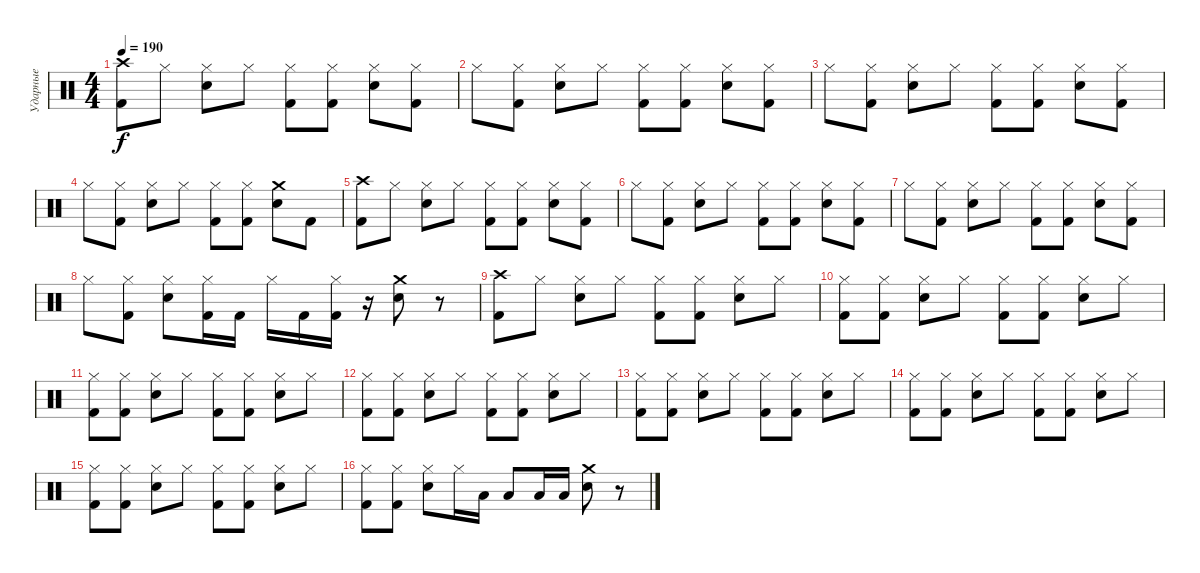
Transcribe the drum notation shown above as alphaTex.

\track ("Ударные" "Ударные") {instrument percussion}
\staff {score}
\articulation defaults
\ts (4 4)
\tempo 190
\clef neutral
\ks c
("Crash high (hit)" "Kick (hit) 2").8{dy f} "Hi-Hat (closed)".8 ("Hi-Hat (closed)" "Electric Snare (hit)").8 "Hi-Hat (closed)".8 ("Hi-Hat (closed)" "Kick (hit) 2").8 ("Hi-Hat (closed)" "Kick (hit) 2").8 ("Hi-Hat (closed)" "Electric Snare (hit)").8 ("Hi-Hat (closed)" "Kick (hit) 2").8 |
"Hi-Hat (closed)".8 ("Hi-Hat (closed)" "Kick (hit) 2").8 ("Hi-Hat (closed)" "Electric Snare (hit)").8 "Hi-Hat (closed)".8 ("Hi-Hat (closed)" "Kick (hit) 2").8 ("Hi-Hat (closed)" "Kick (hit) 2").8 ("Hi-Hat (closed)" "Electric Snare (hit)").8 ("Hi-Hat (closed)" "Kick (hit) 2").8 |
"Hi-Hat (closed)".8 ("Hi-Hat (closed)" "Kick (hit) 2").8 ("Hi-Hat (closed)" "Electric Snare (hit)").8 "Hi-Hat (closed)".8 ("Hi-Hat (closed)" "Kick (hit) 2").8 ("Hi-Hat (closed)" "Kick (hit) 2").8 ("Hi-Hat (closed)" "Electric Snare (hit)").8 ("Hi-Hat (closed)" "Kick (hit) 2").8 |
"Hi-Hat (closed)".8 ("Hi-Hat (closed)" "Kick (hit) 2").8 ("Hi-Hat (closed)" "Electric Snare (hit)").8 "Hi-Hat (closed)".8 ("Hi-Hat (closed)" "Kick (hit) 2").8 ("Hi-Hat (closed)" "Kick (hit) 2").8 ("Crash medium (hit)" "Electric Snare (hit)").8 "Kick (hit) 2".8 |
("Crash high (hit)" "Kick (hit) 2").8 "Hi-Hat (closed)".8 ("Hi-Hat (closed)" "Electric Snare (hit)").8 "Hi-Hat (closed)".8 ("Hi-Hat (closed)" "Kick (hit) 2").8 ("Hi-Hat (closed)" "Kick (hit) 2").8 ("Hi-Hat (closed)" "Electric Snare (hit)").8 ("Hi-Hat (closed)" "Kick (hit) 2").8 |
"Hi-Hat (closed)".8 ("Hi-Hat (closed)" "Kick (hit) 2").8 ("Hi-Hat (closed)" "Electric Snare (hit)").8 "Hi-Hat (closed)".8 ("Hi-Hat (closed)" "Kick (hit) 2").8 ("Hi-Hat (closed)" "Kick (hit) 2").8 ("Hi-Hat (closed)" "Electric Snare (hit)").8 ("Hi-Hat (closed)" "Kick (hit) 2").8 |
"Hi-Hat (closed)".8 ("Hi-Hat (closed)" "Kick (hit) 2").8 ("Hi-Hat (closed)" "Electric Snare (hit)").8 "Hi-Hat (closed)".8 ("Hi-Hat (closed)" "Kick (hit) 2").8 ("Hi-Hat (closed)" "Kick (hit) 2").8 ("Hi-Hat (closed)" "Electric Snare (hit)").8 ("Hi-Hat (closed)" "Kick (hit) 2").8 |
"Hi-Hat (closed)".8 ("Hi-Hat (closed)" "Kick (hit) 2").8 ("Hi-Hat (closed)" "Electric Snare (hit)").8 ("Hi-Hat (closed)" "Kick (hit) 2").16 "Kick (hit) 2".16 "Hi-Hat (closed)".16 "Kick (hit) 2".16 ("Hi-Hat (closed)" "Kick (hit) 2").16 r.16 ("Crash medium (hit)" "Electric Snare (hit)").8 r.8 |
("Crash high (hit)" "Kick (hit) 2").8 "Hi-Hat (closed)".8 ("Hi-Hat (closed)" "Electric Snare (hit)").8 "Hi-Hat (closed)".8 ("Hi-Hat (closed)" "Kick (hit) 2").8 ("Hi-Hat (closed)" "Kick (hit) 2").8 ("Hi-Hat (closed)" "Electric Snare (hit)").8 "Hi-Hat (closed)".8 |
("Hi-Hat (closed)" "Kick (hit) 2").8 ("Hi-Hat (closed)" "Kick (hit) 2").8 ("Hi-Hat (closed)" "Electric Snare (hit)").8 "Hi-Hat (closed)".8 ("Hi-Hat (closed)" "Kick (hit) 2").8 ("Hi-Hat (closed)" "Kick (hit) 2").8 ("Hi-Hat (closed)" "Electric Snare (hit)").8 "Hi-Hat (closed)".8 |
("Hi-Hat (closed)" "Kick (hit) 2").8 ("Hi-Hat (closed)" "Kick (hit) 2").8 ("Hi-Hat (closed)" "Electric Snare (hit)").8 "Hi-Hat (closed)".8 ("Hi-Hat (closed)" "Kick (hit) 2").8 ("Hi-Hat (closed)" "Kick (hit) 2").8 ("Hi-Hat (closed)" "Electric Snare (hit)").8 "Hi-Hat (closed)".8 |
("Hi-Hat (closed)" "Kick (hit) 2").8 ("Hi-Hat (closed)" "Kick (hit) 2").8 ("Hi-Hat (closed)" "Electric Snare (hit)").8 "Hi-Hat (closed)".8 ("Hi-Hat (closed)" "Kick (hit) 2").8 ("Hi-Hat (closed)" "Kick (hit) 2").8 ("Hi-Hat (closed)" "Electric Snare (hit)").8 "Hi-Hat (closed)".8 |
("Hi-Hat (closed)" "Kick (hit) 2").8 ("Hi-Hat (closed)" "Kick (hit) 2").8 ("Hi-Hat (closed)" "Electric Snare (hit)").8 "Hi-Hat (closed)".8 ("Hi-Hat (closed)" "Kick (hit) 2").8 ("Hi-Hat (closed)" "Kick (hit) 2").8 ("Hi-Hat (closed)" "Electric Snare (hit)").8 "Hi-Hat (closed)".8 |
("Hi-Hat (closed)" "Kick (hit) 2").8 ("Hi-Hat (closed)" "Kick (hit) 2").8 ("Hi-Hat (closed)" "Electric Snare (hit)").8 "Hi-Hat (closed)".8 ("Hi-Hat (closed)" "Kick (hit) 2").8 ("Hi-Hat (closed)" "Kick (hit) 2").8 ("Hi-Hat (closed)" "Electric Snare (hit)").8 "Hi-Hat (closed)".8 |
("Hi-Hat (closed)" "Kick (hit) 2").8 ("Hi-Hat (closed)" "Kick (hit) 2").8 ("Hi-Hat (closed)" "Electric Snare (hit)").8 "Hi-Hat (closed)".8 ("Hi-Hat (closed)" "Kick (hit) 2").8 ("Hi-Hat (closed)" "Kick (hit) 2").8 ("Hi-Hat (closed)" "Electric Snare (hit)").8 "Hi-Hat (closed)".8 |
("Hi-Hat (closed)" "Kick (hit) 2").8 ("Hi-Hat (closed)" "Kick (hit) 2").8 ("Hi-Hat (closed)" "Electric Snare (hit)").8 "Hi-Hat (closed)".16 "Low Tom (hit)".16 "Low Tom (hit)".8 "Low Tom (hit)".16 "Low Tom (hit)".16 ("Crash medium (hit)" "Electric Snare (hit)").8 r.8
